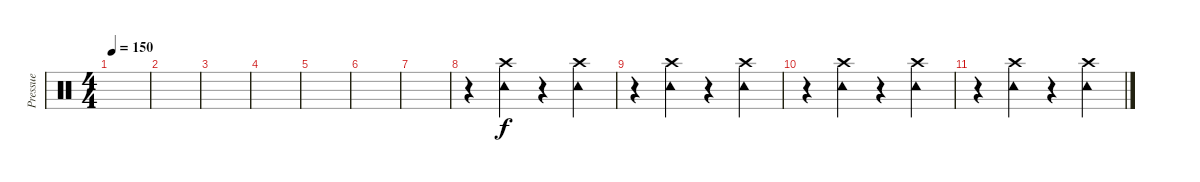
\track ("Pressue" "Pressue") {instrument percussion}
\staff {score}
\articulation defaults
\ts (4 4)
\tempo 150
\clef neutral
\ks c
|
|
|
|
|
|
|
r.4 ("Crash high (hit)" "Tambourine (hit)").4 r.4 ("Crash high (hit)" "Tambourine (hit)").4 |
r.4 ("Crash high (hit)" "Tambourine (hit)").4 r.4 ("Crash high (hit)" "Tambourine (hit)").4 |
r.4 ("Crash high (hit)" "Tambourine (hit)").4 r.4 ("Crash high (hit)" "Tambourine (hit)").4 |
r.4 ("Crash high (hit)" "Tambourine (hit)").4 r.4 ("Crash high (hit)" "Tambourine (hit)").4
